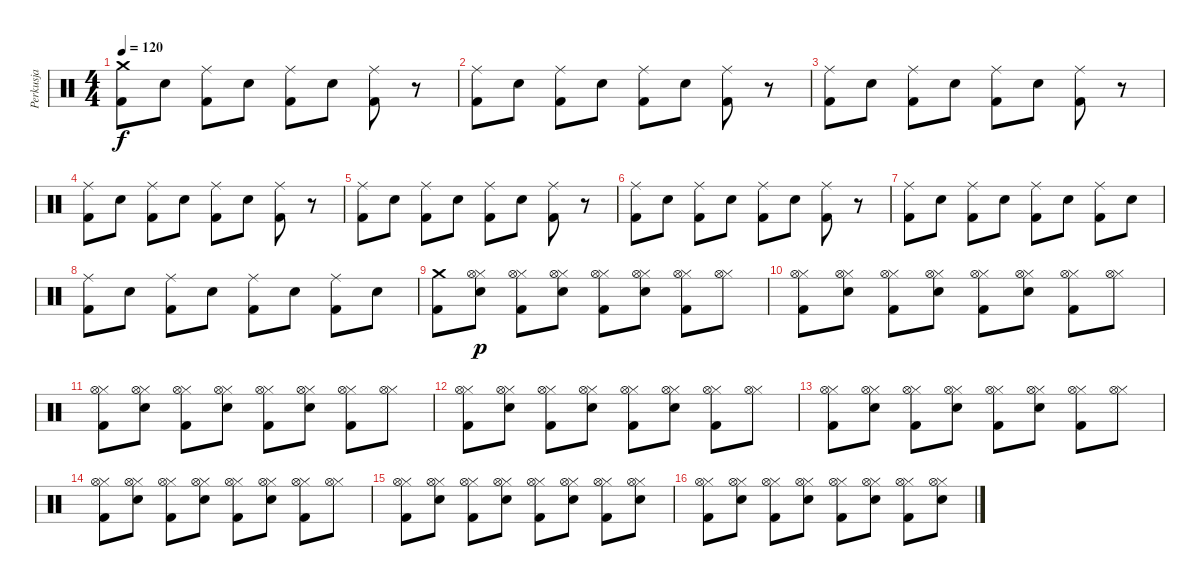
\track ("Perkusja" "Perkusja") {instrument percussion}
\staff {score}
\articulation defaults
\ts (4 4)
\tempo 120
\clef neutral
\ks c
("Kick (hit) 2" "Crash medium (hit)").8{dy f} "Electric Snare (hit)".8 ("Kick (hit) 2" "Ride (middle)").8 "Electric Snare (hit)".8 ("Kick (hit) 2" "Ride (middle)").8 "Electric Snare (hit)".8 ("Kick (hit) 2" "Ride (middle)").8 r.8 |
("Kick (hit) 2" "Ride (middle)").8 "Electric Snare (hit)".8 ("Kick (hit) 2" "Ride (middle)").8 "Electric Snare (hit)".8 ("Kick (hit) 2" "Ride (middle)").8 "Electric Snare (hit)".8 ("Kick (hit) 2" "Ride (middle)").8 r.8 |
("Kick (hit) 2" "Ride (middle)").8 "Electric Snare (hit)".8 ("Kick (hit) 2" "Ride (middle)").8 "Electric Snare (hit)".8 ("Kick (hit) 2" "Ride (middle)").8 "Electric Snare (hit)".8 ("Kick (hit) 2" "Ride (middle)").8 r.8 |
("Kick (hit) 2" "Ride (middle)").8 "Electric Snare (hit)".8 ("Kick (hit) 2" "Ride (middle)").8 "Electric Snare (hit)".8 ("Kick (hit) 2" "Ride (middle)").8 "Electric Snare (hit)".8 ("Kick (hit) 2" "Ride (middle)").8 r.8 |
("Kick (hit) 2" "Ride (middle)").8 "Electric Snare (hit)".8 ("Kick (hit) 2" "Ride (middle)").8 "Electric Snare (hit)".8 ("Kick (hit) 2" "Ride (middle)").8 "Electric Snare (hit)".8 ("Kick (hit) 2" "Ride (middle)").8 r.8 |
("Kick (hit) 2" "Ride (middle)").8 "Electric Snare (hit)".8 ("Kick (hit) 2" "Ride (middle)").8 "Electric Snare (hit)".8 ("Kick (hit) 2" "Ride (middle)").8 "Electric Snare (hit)".8 ("Kick (hit) 2" "Ride (middle)").8 r.8 |
("Kick (hit) 2" "Ride (middle)").8 "Electric Snare (hit)".8 ("Kick (hit) 2" "Ride (middle)").8 "Electric Snare (hit)".8 ("Kick (hit) 2" "Ride (middle)").8 "Electric Snare (hit)".8 ("Kick (hit) 2" "Ride (middle)").8 "Electric Snare (hit)".8 |
("Kick (hit) 2" "Ride (middle)").8 "Electric Snare (hit)".8 ("Kick (hit) 2" "Ride (middle)").8 "Electric Snare (hit)".8 ("Kick (hit) 2" "Ride (middle)").8 "Electric Snare (hit)".8 ("Kick (hit) 2" "Ride (middle)").8 "Electric Snare (hit)".8 |
("Kick (hit) 2" "Crash medium (hit)").8 ("Electric Snare (hit)" "Hi-Hat (closed)" "Hi-Hat (open)").8{dy p} ("Kick (hit) 2" "Hi-Hat (closed)" "Hi-Hat (open)").8 ("Electric Snare (hit)" "Hi-Hat (closed)" "Hi-Hat (open)").8 ("Kick (hit) 2" "Hi-Hat (closed)" "Hi-Hat (open)").8 ("Electric Snare (hit)" "Hi-Hat (closed)" "Hi-Hat (open)").8 ("Kick (hit) 2" "Hi-Hat (closed)" "Hi-Hat (open)").8 ("Hi-Hat (closed)" "Hi-Hat (open)").8 |
("Kick (hit) 2" "Hi-Hat (closed)" "Hi-Hat (open)").8 ("Electric Snare (hit)" "Hi-Hat (closed)" "Hi-Hat (open)").8 ("Kick (hit) 2" "Hi-Hat (closed)" "Hi-Hat (open)").8 ("Electric Snare (hit)" "Hi-Hat (closed)" "Hi-Hat (open)").8 ("Kick (hit) 2" "Hi-Hat (closed)" "Hi-Hat (open)").8 ("Electric Snare (hit)" "Hi-Hat (closed)" "Hi-Hat (open)").8 ("Kick (hit) 2" "Hi-Hat (closed)" "Hi-Hat (open)").8 ("Hi-Hat (closed)" "Hi-Hat (open)").8 |
("Kick (hit) 2" "Hi-Hat (closed)" "Hi-Hat (open)").8 ("Electric Snare (hit)" "Hi-Hat (closed)" "Hi-Hat (open)").8 ("Kick (hit) 2" "Hi-Hat (closed)" "Hi-Hat (open)").8 ("Electric Snare (hit)" "Hi-Hat (closed)" "Hi-Hat (open)").8 ("Kick (hit) 2" "Hi-Hat (closed)" "Hi-Hat (open)").8 ("Electric Snare (hit)" "Hi-Hat (closed)" "Hi-Hat (open)").8 ("Kick (hit) 2" "Hi-Hat (closed)" "Hi-Hat (open)").8 ("Hi-Hat (closed)" "Hi-Hat (open)").8 |
("Kick (hit) 2" "Hi-Hat (closed)" "Hi-Hat (open)").8 ("Electric Snare (hit)" "Hi-Hat (closed)" "Hi-Hat (open)").8 ("Kick (hit) 2" "Hi-Hat (closed)" "Hi-Hat (open)").8 ("Electric Snare (hit)" "Hi-Hat (closed)" "Hi-Hat (open)").8 ("Kick (hit) 2" "Hi-Hat (closed)" "Hi-Hat (open)").8 ("Electric Snare (hit)" "Hi-Hat (closed)" "Hi-Hat (open)").8 ("Kick (hit) 2" "Hi-Hat (closed)" "Hi-Hat (open)").8 ("Hi-Hat (closed)" "Hi-Hat (open)").8 |
("Kick (hit) 2" "Hi-Hat (closed)" "Hi-Hat (open)").8 ("Electric Snare (hit)" "Hi-Hat (closed)" "Hi-Hat (open)").8 ("Kick (hit) 2" "Hi-Hat (closed)" "Hi-Hat (open)").8 ("Electric Snare (hit)" "Hi-Hat (closed)" "Hi-Hat (open)").8 ("Kick (hit) 2" "Hi-Hat (closed)" "Hi-Hat (open)").8 ("Electric Snare (hit)" "Hi-Hat (closed)" "Hi-Hat (open)").8 ("Kick (hit) 2" "Hi-Hat (closed)" "Hi-Hat (open)").8 ("Hi-Hat (closed)" "Hi-Hat (open)").8 |
("Kick (hit) 2" "Hi-Hat (closed)" "Hi-Hat (open)").8 ("Electric Snare (hit)" "Hi-Hat (closed)" "Hi-Hat (open)").8 ("Kick (hit) 2" "Hi-Hat (closed)" "Hi-Hat (open)").8 ("Electric Snare (hit)" "Hi-Hat (closed)" "Hi-Hat (open)").8 ("Kick (hit) 2" "Hi-Hat (closed)" "Hi-Hat (open)").8 ("Electric Snare (hit)" "Hi-Hat (closed)" "Hi-Hat (open)").8 ("Kick (hit) 2" "Hi-Hat (closed)" "Hi-Hat (open)").8 ("Hi-Hat (closed)" "Hi-Hat (open)").8 |
("Kick (hit) 2" "Hi-Hat (closed)" "Hi-Hat (open)").8 ("Electric Snare (hit)" "Hi-Hat (closed)" "Hi-Hat (open)").8 ("Kick (hit) 2" "Hi-Hat (closed)" "Hi-Hat (open)").8 ("Electric Snare (hit)" "Hi-Hat (closed)" "Hi-Hat (open)").8 ("Kick (hit) 2" "Hi-Hat (closed)" "Hi-Hat (open)").8 ("Electric Snare (hit)" "Hi-Hat (closed)" "Hi-Hat (open)").8 ("Kick (hit) 2" "Hi-Hat (closed)" "Hi-Hat (open)").8 ("Electric Snare (hit)" "Hi-Hat (closed)" "Hi-Hat (open)").8 |
("Kick (hit) 2" "Hi-Hat (closed)" "Hi-Hat (open)").8 ("Electric Snare (hit)" "Hi-Hat (closed)" "Hi-Hat (open)").8 ("Kick (hit) 2" "Hi-Hat (closed)" "Hi-Hat (open)").8 ("Electric Snare (hit)" "Hi-Hat (closed)" "Hi-Hat (open)").8 ("Kick (hit) 2" "Hi-Hat (closed)" "Hi-Hat (open)").8 ("Electric Snare (hit)" "Hi-Hat (closed)" "Hi-Hat (open)").8 ("Kick (hit) 2" "Hi-Hat (closed)" "Hi-Hat (open)").8 ("Electric Snare (hit)" "Hi-Hat (closed)" "Hi-Hat (open)").8
